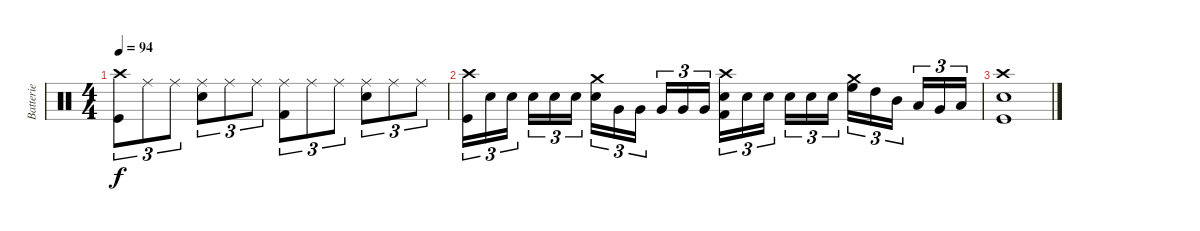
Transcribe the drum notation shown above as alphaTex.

\track ("Batterie" "Batterie") {instrument percussion}
\staff {score}
\articulation defaults
\ts (4 4)
\tempo 94
\clef neutral
\ks c
("Crash high (hit)" "Kick (hit)").8{tu (3 2) dy f} "Ride (middle)".8{tu (3 2)} "Ride (middle)".8{tu (3 2)} ("Ride (middle)" "Snare (hit) 2").8{tu (3 2)} "Ride (middle)".8{tu (3 2)} "Ride (middle)".8{tu (3 2)} ("Ride (middle)" "Kick (hit) 2").8{tu (3 2)} "Ride (middle)".8{tu (3 2)} "Ride (middle)".8{tu (3 2)} ("Ride (middle)" "Snare (hit) 2").8{tu (3 2)} "Ride (middle)".8{tu (3 2)} "Ride (middle)".8{tu (3 2)} |
("Crash high (hit)" "Kick (hit)").16{tu (3 2)} "Snare (hit) 2".16{tu (3 2)} "Snare (hit) 2".16{tu (3 2)} "Snare (hit) 2".16{tu (3 2)} "Snare (hit) 2".16{tu (3 2)} "Snare (hit) 2".16{tu (3 2)} ("Crash medium (hit)" "Snare (hit) 2").16{tu (3 2)} "Very Low Tom (hit)".16{tu (3 2)} "Very Low Tom (hit)".16{tu (3 2)} "Very Low Tom (hit)".16{tu (3 2)} "Very Low Tom (hit)".16{tu (3 2)} "Very Low Tom (hit)".16{tu (3 2)} ("Crash high (hit)" "Snare (hit) 2" "Kick (hit) 2").16{tu (3 2)} "Snare (hit) 2".16{tu (3 2)} "Snare (hit) 2".16{tu (3 2)} "Snare (hit) 2".16{tu (3 2)} "Snare (hit) 2".16{tu (3 2)} "Snare (hit) 2".16{tu (3 2)} ("Crash medium (hit)" "High Floor Tom (hit)").16{tu (3 2)} "High Tom (hit)".16{tu (3 2)} "Mid Tom (hit)".16{tu (3 2)} "Low Tom (hit)".16{tu (3 2)} "Very Low Tom (hit)".16{tu (3 2)} "Low Floor Tom (hit)".16{tu (3 2)} |
("Crash high (hit)" "Snare (hit) 2" "Kick (hit)").1
